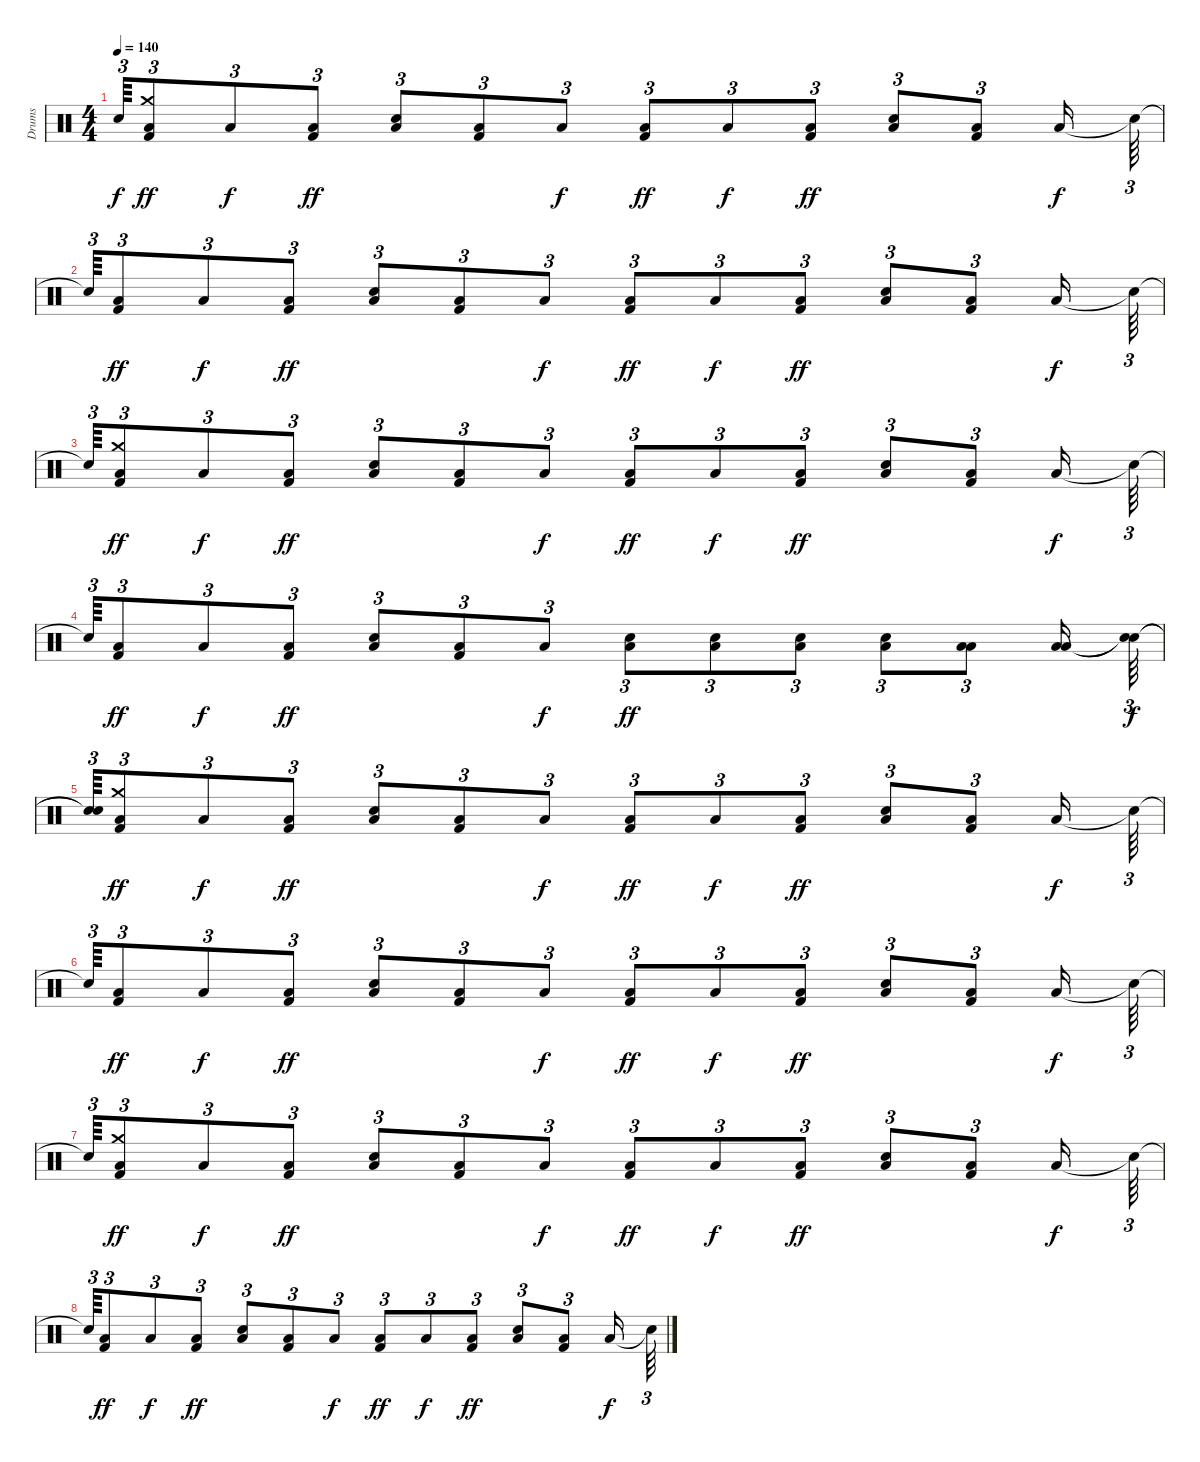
\track ("Drums" "Drums") {instrument percussion}
\staff {score}
\articulation defaults
\ts (4 4)
\tempo 140
\clef neutral
\ks c "Snare (hit)"{t}.64{tu (3 2) dy f}
("Kick (hit) 2" "Crash medium (hit)" "Low Floor Tom (hit)").8{tu (3 2) dy ff} "Low Floor Tom (hit)".8{tu (3 2) dy f} ("Kick (hit) 2" "Low Floor Tom (hit)").8{tu (3 2) dy ff} ("Snare (hit) 2" "Low Floor Tom (hit)").8{tu (3 2)} ("Kick (hit) 2" "Low Floor Tom (hit)").8{tu (3 2)} "Low Floor Tom (hit)".8{tu (3 2) dy f} ("Kick (hit) 2" "Low Floor Tom (hit)").8{tu (3 2) dy ff} "Low Floor Tom (hit)".8{tu (3 2) dy f} ("Kick (hit) 2" "Low Floor Tom (hit)").8{tu (3 2) dy ff} ("Snare (hit) 2" "Low Floor Tom (hit)").8{tu (3 2)} ("Kick (hit) 2" "Low Floor Tom (hit)").8{tu (3 2)} "Low Floor Tom (hit)".16{dy f} "Snare (hit)"{t}.64{tu (3 2)} |
"Snare (hit)"{t}.64{tu (3 2)} ("Kick (hit) 2" "Low Floor Tom (hit)").8{tu (3 2) dy ff} "Low Floor Tom (hit)".8{tu (3 2) dy f} ("Kick (hit) 2" "Low Floor Tom (hit)").8{tu (3 2) dy ff} ("Snare (hit) 2" "Low Floor Tom (hit)").8{tu (3 2)} ("Kick (hit) 2" "Low Floor Tom (hit)").8{tu (3 2)} "Low Floor Tom (hit)".8{tu (3 2) dy f} ("Kick (hit) 2" "Low Floor Tom (hit)").8{tu (3 2) dy ff} "Low Floor Tom (hit)".8{tu (3 2) dy f} ("Kick (hit) 2" "Low Floor Tom (hit)").8{tu (3 2) dy ff} ("Snare (hit) 2" "Low Floor Tom (hit)").8{tu (3 2)} ("Kick (hit) 2" "Low Floor Tom (hit)").8{tu (3 2)} "Low Floor Tom (hit)".16{dy f} "Snare (hit)"{t}.64{tu (3 2)} |
"Snare (hit)"{t}.64{tu (3 2)} ("Kick (hit) 2" "Crash medium (hit)" "Low Floor Tom (hit)").8{tu (3 2) dy ff} "Low Floor Tom (hit)".8{tu (3 2) dy f} ("Kick (hit) 2" "Low Floor Tom (hit)").8{tu (3 2) dy ff} ("Snare (hit) 2" "Low Floor Tom (hit)").8{tu (3 2)} ("Kick (hit) 2" "Low Floor Tom (hit)").8{tu (3 2)} "Low Floor Tom (hit)".8{tu (3 2) dy f} ("Kick (hit) 2" "Low Floor Tom (hit)").8{tu (3 2) dy ff} "Low Floor Tom (hit)".8{tu (3 2) dy f} ("Kick (hit) 2" "Low Floor Tom (hit)").8{tu (3 2) dy ff} ("Snare (hit) 2" "Low Floor Tom (hit)").8{tu (3 2)} ("Kick (hit) 2" "Low Floor Tom (hit)").8{tu (3 2)} "Low Floor Tom (hit)".16{dy f} "Snare (hit)"{t}.64{tu (3 2)} |
"Snare (hit)"{t}.64{tu (3 2)} ("Kick (hit) 2" "Low Floor Tom (hit)").8{tu (3 2) dy ff} "Low Floor Tom (hit)".8{tu (3 2) dy f} ("Kick (hit) 2" "Low Floor Tom (hit)").8{tu (3 2) dy ff} ("Snare (hit) 2" "Low Floor Tom (hit)").8{tu (3 2)} ("Kick (hit) 2" "Low Floor Tom (hit)").8{tu (3 2)} "Low Floor Tom (hit)".8{tu (3 2) dy f} ("Snare (hit) 2" "Low Floor Tom (hit)").8{tu (3 2) dy ff} ("Snare (hit) 2" "Low Floor Tom (hit)").8{tu (3 2)} ("Snare (hit) 2" "Low Floor Tom (hit)").8{tu (3 2)} ("Snare (hit) 2" "Low Floor Tom (hit)").8{tu (3 2)} ("Low Tom (hit)" "Low Floor Tom (hit)").8{tu (3 2)} ("Low Floor Tom (hit)" "Low Floor Tom (hit)").16 ("Snare (hit)"{t} "Snare (hit)"{t}).64{tu (3 2) dy f} |
("Snare (hit)"{t} "Snare (hit)"{t}).64{tu (3 2)} ("Kick (hit) 2" "Crash medium (hit)" "Low Floor Tom (hit)").8{tu (3 2) dy ff} "Low Floor Tom (hit)".8{tu (3 2) dy f} ("Kick (hit) 2" "Low Floor Tom (hit)").8{tu (3 2) dy ff} ("Snare (hit) 2" "Low Floor Tom (hit)").8{tu (3 2)} ("Kick (hit) 2" "Low Floor Tom (hit)").8{tu (3 2)} "Low Floor Tom (hit)".8{tu (3 2) dy f} ("Kick (hit) 2" "Low Floor Tom (hit)").8{tu (3 2) dy ff} "Low Floor Tom (hit)".8{tu (3 2) dy f} ("Kick (hit) 2" "Low Floor Tom (hit)").8{tu (3 2) dy ff} ("Snare (hit) 2" "Low Floor Tom (hit)").8{tu (3 2)} ("Kick (hit) 2" "Low Floor Tom (hit)").8{tu (3 2)} "Low Floor Tom (hit)".16{dy f} "Snare (hit)"{t}.64{tu (3 2)} |
"Snare (hit)"{t}.64{tu (3 2)} ("Kick (hit) 2" "Low Floor Tom (hit)").8{tu (3 2) dy ff} "Low Floor Tom (hit)".8{tu (3 2) dy f} ("Kick (hit) 2" "Low Floor Tom (hit)").8{tu (3 2) dy ff} ("Snare (hit) 2" "Low Floor Tom (hit)").8{tu (3 2)} ("Kick (hit) 2" "Low Floor Tom (hit)").8{tu (3 2)} "Low Floor Tom (hit)".8{tu (3 2) dy f} ("Kick (hit) 2" "Low Floor Tom (hit)").8{tu (3 2) dy ff} "Low Floor Tom (hit)".8{tu (3 2) dy f} ("Kick (hit) 2" "Low Floor Tom (hit)").8{tu (3 2) dy ff} ("Snare (hit) 2" "Low Floor Tom (hit)").8{tu (3 2)} ("Kick (hit) 2" "Low Floor Tom (hit)").8{tu (3 2)} "Low Floor Tom (hit)".16{dy f} "Snare (hit)"{t}.64{tu (3 2)} |
"Snare (hit)"{t}.64{tu (3 2)} ("Kick (hit) 2" "Crash medium (hit)" "Low Floor Tom (hit)").8{tu (3 2) dy ff} "Low Floor Tom (hit)".8{tu (3 2) dy f} ("Kick (hit) 2" "Low Floor Tom (hit)").8{tu (3 2) dy ff} ("Snare (hit) 2" "Low Floor Tom (hit)").8{tu (3 2)} ("Kick (hit) 2" "Low Floor Tom (hit)").8{tu (3 2)} "Low Floor Tom (hit)".8{tu (3 2) dy f} ("Kick (hit) 2" "Low Floor Tom (hit)").8{tu (3 2) dy ff} "Low Floor Tom (hit)".8{tu (3 2) dy f} ("Kick (hit) 2" "Low Floor Tom (hit)").8{tu (3 2) dy ff} ("Snare (hit) 2" "Low Floor Tom (hit)").8{tu (3 2)} ("Kick (hit) 2" "Low Floor Tom (hit)").8{tu (3 2)} "Low Floor Tom (hit)".16{dy f} "Snare (hit)"{t}.64{tu (3 2)} |
"Snare (hit)"{t}.64{tu (3 2)} ("Kick (hit) 2" "Low Floor Tom (hit)").8{tu (3 2) dy ff} "Low Floor Tom (hit)".8{tu (3 2) dy f} ("Kick (hit) 2" "Low Floor Tom (hit)").8{tu (3 2) dy ff} ("Snare (hit) 2" "Low Floor Tom (hit)").8{tu (3 2)} ("Kick (hit) 2" "Low Floor Tom (hit)").8{tu (3 2)} "Low Floor Tom (hit)".8{tu (3 2) dy f} ("Kick (hit) 2" "Low Floor Tom (hit)").8{tu (3 2) dy ff} "Low Floor Tom (hit)".8{tu (3 2) dy f} ("Kick (hit) 2" "Low Floor Tom (hit)").8{tu (3 2) dy ff} ("Snare (hit) 2" "Low Floor Tom (hit)").8{tu (3 2)} ("Kick (hit) 2" "Low Floor Tom (hit)").8{tu (3 2)} "Low Floor Tom (hit)".16{dy f} "Snare (hit)"{t}.64{tu (3 2)}
